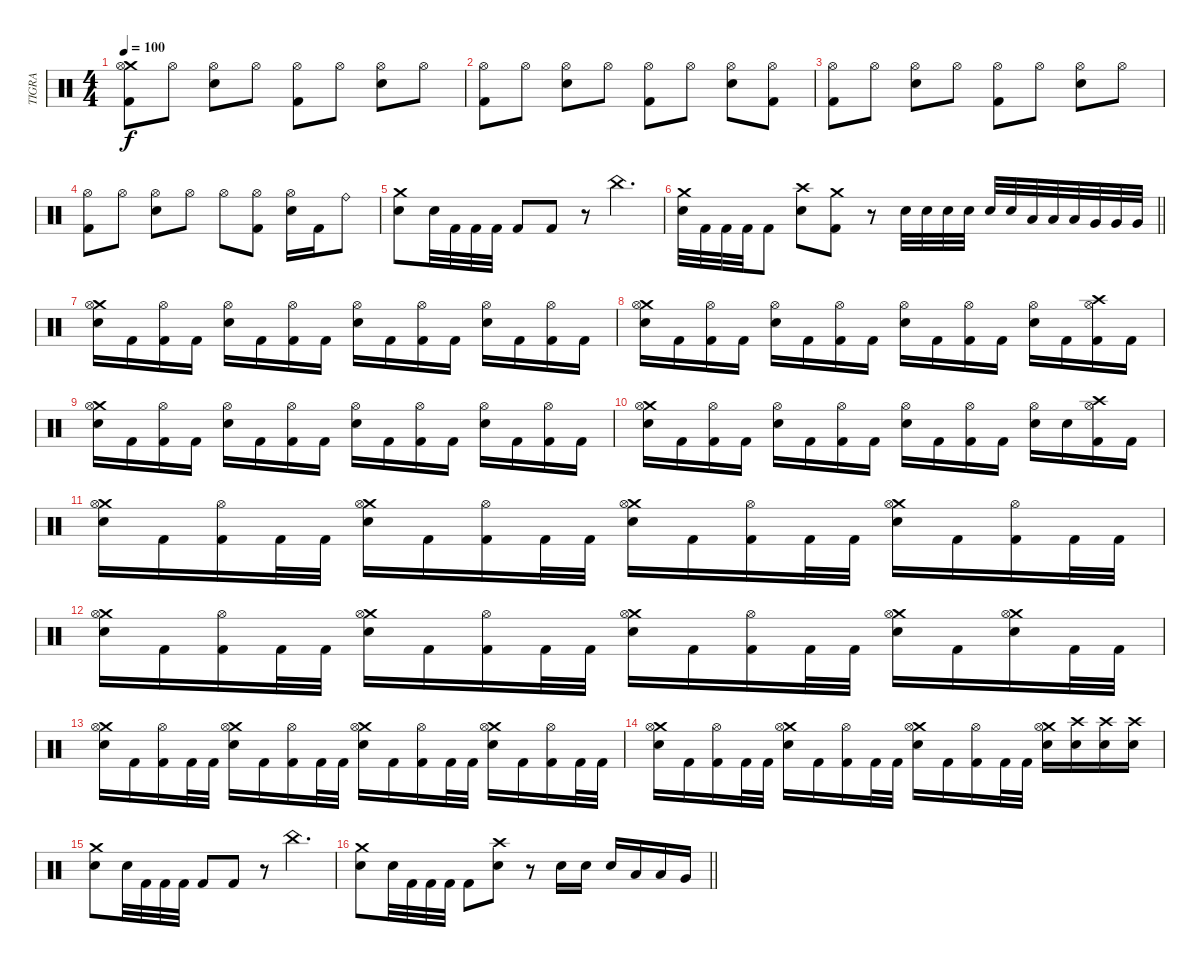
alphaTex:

\track ("TIGRA" "TIGRA") {instrument percussion}
\staff {score}
\articulation defaults
\ts (4 4)
\tempo 100
\clef neutral
\ks c
("Crash medium (hit)" "Hi-Hat (open)" "Kick (hit) 2").8{dy f} "Hi-Hat (open)".8 ("Hi-Hat (open)" "Snare (hit) 2").8 "Hi-Hat (open)".8 ("Hi-Hat (open)" "Kick (hit) 2").8 "Hi-Hat (open)".8 ("Hi-Hat (open)" "Snare (hit) 2").8 "Hi-Hat (open)".8 |
("Hi-Hat (open)" "Kick (hit) 2").8 "Hi-Hat (open)".8 ("Hi-Hat (open)" "Snare (hit) 2").8 "Hi-Hat (open)".8 ("Hi-Hat (open)" "Kick (hit) 2").8 "Hi-Hat (open)".8 ("Hi-Hat (open)" "Snare (hit) 2").8 ("Hi-Hat (open)" "Kick (hit) 2").8 |
("Hi-Hat (open)" "Kick (hit) 2").8 "Hi-Hat (open)".8 ("Hi-Hat (open)" "Snare (hit) 2").8 "Hi-Hat (open)".8 ("Hi-Hat (open)" "Kick (hit) 2").8 "Hi-Hat (open)".8 ("Hi-Hat (open)" "Snare (hit) 2").8 "Hi-Hat (open)".8 |
("Hi-Hat (open)" "Kick (hit) 2").8 "Hi-Hat (open)".8 ("Hi-Hat (open)" "Snare (hit) 2").8 "Hi-Hat (open)".8 "Hi-Hat (open)".8 ("Hi-Hat (open)" "Kick (hit) 2").8 ("Hi-Hat (open)" "Snare (hit) 2").16 "Kick (hit) 2".16 "Ride (bell)".8 |
("Crash medium (hit)" "Snare (hit) 2").8 "Snare (hit) 2".32 "Kick (hit) 2".32 "Kick (hit) 2".32 "Kick (hit) 2".32 "Kick (hit) 2".8 "Kick (hit) 2".8 r.8 "China (hit)".4{d} |
\barLineRight lightlight
("Crash medium (hit)" "Snare (hit) 2").32 "Kick (hit) 2".32 "Kick (hit) 2".32 "Kick (hit) 2".32 "Kick (hit) 2".8 ("Crash high (hit)" "Snare (hit) 2").8 ("Crash medium (hit)" "Kick (hit) 2").8 r.8 "Snare (hit) 2".32 "Snare (hit) 2".32 "Snare (hit) 2".32 "Snare (hit) 2".32 "Snare (hit) 2".32 "Snare (hit) 2".32 "Low Tom (hit)".32 "Low Tom (hit)".32 "Low Tom (hit)".32 "Very Low Tom (hit)".32 "Very Low Tom (hit)".32 "Very Low Tom (hit)".32 |
("Crash medium (hit)" "Hi-Hat (open)" "Snare (hit) 2").16 "Kick (hit) 2".16 ("Hi-Hat (open)" "Kick (hit) 2").16 "Kick (hit) 2".16 ("Hi-Hat (open)" "Snare (hit) 2").16 "Kick (hit) 2".16 ("Hi-Hat (open)" "Kick (hit) 2").16 "Kick (hit) 2".16 ("Hi-Hat (open)" "Snare (hit) 2").16 "Kick (hit) 2".16 ("Hi-Hat (open)" "Kick (hit) 2").16 "Kick (hit) 2".16 ("Hi-Hat (open)" "Snare (hit) 2").16 "Kick (hit) 2".16 ("Hi-Hat (open)" "Kick (hit) 2").16 "Kick (hit) 2".16 |
("Crash medium (hit)" "Hi-Hat (open)" "Snare (hit) 2").16 "Kick (hit) 2".16 ("Hi-Hat (open)" "Kick (hit) 2").16 "Kick (hit) 2".16 ("Hi-Hat (open)" "Snare (hit) 2").16 "Kick (hit) 2".16 ("Hi-Hat (open)" "Kick (hit) 2").16 "Kick (hit) 2".16 ("Hi-Hat (open)" "Snare (hit) 2").16 "Kick (hit) 2".16 ("Hi-Hat (open)" "Kick (hit) 2").16 "Kick (hit) 2".16 ("Hi-Hat (open)" "Snare (hit) 2").16 "Kick (hit) 2".16 ("Crash high (hit)" "Hi-Hat (open)" "Kick (hit) 2").16 "Kick (hit) 2".16 |
("Crash medium (hit)" "Hi-Hat (open)" "Snare (hit) 2").16 "Kick (hit) 2".16 ("Hi-Hat (open)" "Kick (hit) 2").16 "Kick (hit) 2".16 ("Hi-Hat (open)" "Snare (hit) 2").16 "Kick (hit) 2".16 ("Hi-Hat (open)" "Kick (hit) 2").16 "Kick (hit) 2".16 ("Hi-Hat (open)" "Snare (hit) 2").16 "Kick (hit) 2".16 ("Hi-Hat (open)" "Kick (hit) 2").16 "Kick (hit) 2".16 ("Hi-Hat (open)" "Snare (hit) 2").16 "Kick (hit) 2".16 ("Hi-Hat (open)" "Kick (hit) 2").16 "Kick (hit) 2".16 |
("Crash medium (hit)" "Hi-Hat (open)" "Snare (hit) 2").16 "Kick (hit) 2".16 ("Hi-Hat (open)" "Kick (hit) 2").16 "Kick (hit) 2".16 ("Hi-Hat (open)" "Snare (hit) 2").16 "Kick (hit) 2".16 ("Hi-Hat (open)" "Kick (hit) 2").16 "Kick (hit) 2".16 ("Hi-Hat (open)" "Snare (hit) 2").16 "Kick (hit) 2".16 ("Hi-Hat (open)" "Kick (hit) 2").16 "Kick (hit) 2".16 ("Hi-Hat (open)" "Snare (hit) 2").16 "Snare (hit) 2".16 ("Crash high (hit)" "Hi-Hat (open)" "Kick (hit) 2").16 "Kick (hit) 2".16 |
("Crash medium (hit)" "Hi-Hat (open)" "Snare (hit) 2").16 "Kick (hit) 2".16 ("Hi-Hat (open)" "Kick (hit) 2").16 "Kick (hit) 2".32 "Kick (hit) 2".32 ("Crash medium (hit)" "Hi-Hat (open)" "Snare (hit) 2").16 "Kick (hit) 2".16 ("Hi-Hat (open)" "Kick (hit) 2").16 "Kick (hit) 2".32 "Kick (hit) 2".32 ("Crash medium (hit)" "Hi-Hat (open)" "Snare (hit) 2").16 "Kick (hit) 2".16 ("Hi-Hat (open)" "Kick (hit) 2").16 "Kick (hit) 2".32 "Kick (hit) 2".32 ("Crash medium (hit)" "Hi-Hat (open)" "Snare (hit) 2").16 "Kick (hit) 2".16 ("Hi-Hat (open)" "Kick (hit) 2").16 "Kick (hit) 2".32 "Kick (hit) 2".32 |
("Crash medium (hit)" "Hi-Hat (open)" "Snare (hit) 2").16 "Kick (hit) 2".16 ("Hi-Hat (open)" "Kick (hit) 2").16 "Kick (hit) 2".32 "Kick (hit) 2".32 ("Crash medium (hit)" "Hi-Hat (open)" "Snare (hit) 2").16 "Kick (hit) 2".16 ("Hi-Hat (open)" "Kick (hit) 2").16 "Kick (hit) 2".32 "Kick (hit) 2".32 ("Crash medium (hit)" "Hi-Hat (open)" "Snare (hit) 2").16 "Kick (hit) 2".16 ("Hi-Hat (open)" "Kick (hit) 2").16 "Kick (hit) 2".32 "Kick (hit) 2".32 ("Crash medium (hit)" "Hi-Hat (open)" "Snare (hit) 2").16 "Kick (hit) 2".16 ("Crash medium (hit)" "Hi-Hat (open)" "Snare (hit) 2").16 "Kick (hit) 2".32 "Kick (hit) 2".32 |
("Crash medium (hit)" "Hi-Hat (open)" "Snare (hit) 2").16 "Kick (hit) 2".16 ("Hi-Hat (open)" "Kick (hit) 2").16 "Kick (hit) 2".32 "Kick (hit) 2".32 ("Crash medium (hit)" "Hi-Hat (open)" "Snare (hit) 2").16 "Kick (hit) 2".16 ("Hi-Hat (open)" "Kick (hit) 2").16 "Kick (hit) 2".32 "Kick (hit) 2".32 ("Crash medium (hit)" "Hi-Hat (open)" "Snare (hit) 2").16 "Kick (hit) 2".16 ("Hi-Hat (open)" "Kick (hit) 2").16 "Kick (hit) 2".32 "Kick (hit) 2".32 ("Crash medium (hit)" "Hi-Hat (open)" "Snare (hit) 2").16 "Kick (hit) 2".16 ("Hi-Hat (open)" "Kick (hit) 2").16 "Kick (hit) 2".32 "Kick (hit) 2".32 |
("Crash medium (hit)" "Hi-Hat (open)" "Snare (hit) 2").16 "Kick (hit) 2".16 ("Hi-Hat (open)" "Kick (hit) 2").16 "Kick (hit) 2".32 "Kick (hit) 2".32 ("Crash medium (hit)" "Hi-Hat (open)" "Snare (hit) 2").16 "Kick (hit) 2".16 ("Hi-Hat (open)" "Kick (hit) 2").16 "Kick (hit) 2".32 "Kick (hit) 2".32 ("Crash medium (hit)" "Hi-Hat (open)" "Snare (hit) 2").16 "Kick (hit) 2".16 ("Hi-Hat (open)" "Kick (hit) 2").16 "Kick (hit) 2".32 "Kick (hit) 2".32 ("Crash medium (hit)" "Hi-Hat (open)" "Snare (hit) 2").16 ("Crash high (hit)" "Snare (hit) 2").16 ("Crash high (hit)" "Snare (hit) 2").16 ("Crash high (hit)" "Snare (hit) 2").16 |
("Crash medium (hit)" "Snare (hit) 2").8 "Snare (hit) 2".32 "Kick (hit) 2".32 "Kick (hit) 2".32 "Kick (hit) 2".32 "Kick (hit) 2".8 "Kick (hit) 2".8 r.8 "China (hit)".4{d} |
\barLineRight lightlight
("Crash medium (hit)" "Snare (hit) 2").8 "Snare (hit) 2".32 "Kick (hit) 2".32 "Kick (hit) 2".32 "Kick (hit) 2".32 "Kick (hit) 2".8 ("Crash high (hit)" "Snare (hit) 2").8 r.8 "Snare (hit) 2".16 "Snare (hit) 2".16 "Snare (hit) 2".16 "Low Tom (hit)".16 "Low Tom (hit)".16 "Very Low Tom (hit)".16
